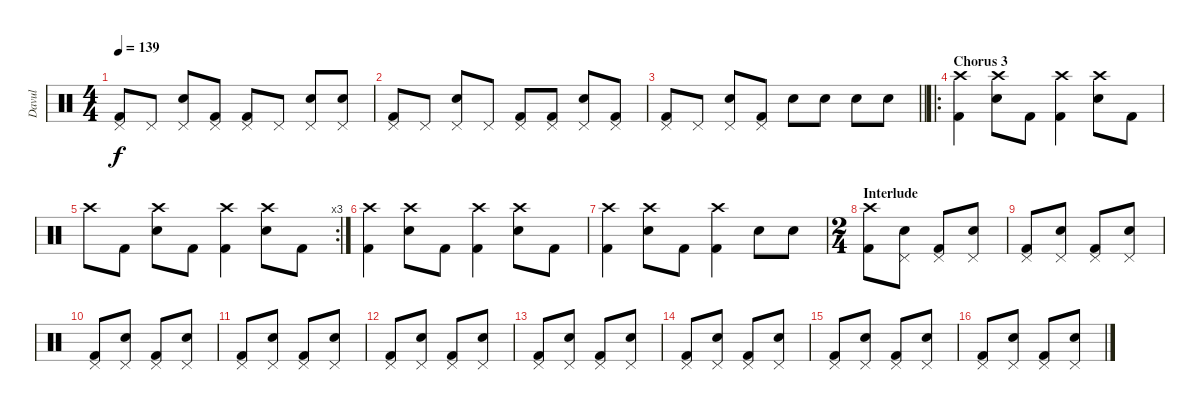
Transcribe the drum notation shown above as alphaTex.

\track ("Davul" "Davul") {instrument percussion}
\staff {score}
\articulation defaults
\ts (4 4)
\tempo 139
\clef neutral
\ks c
("Pedal Hi-Hat (hit)" "Kick (hit) 2").8{dy f} "Pedal Hi-Hat (hit)".8 ("Pedal Hi-Hat (hit)" "Snare (hit) 2").8 ("Pedal Hi-Hat (hit)" "Kick (hit) 2").8 ("Pedal Hi-Hat (hit)" "Kick (hit) 2").8 "Pedal Hi-Hat (hit)".8 ("Pedal Hi-Hat (hit)" "Snare (hit) 2").8 ("Pedal Hi-Hat (hit)" "Snare (hit) 2").8 |
("Pedal Hi-Hat (hit)" "Kick (hit) 2").8 "Pedal Hi-Hat (hit)".8 ("Pedal Hi-Hat (hit)" "Snare (hit) 2").8 "Pedal Hi-Hat (hit)".8 ("Pedal Hi-Hat (hit)" "Kick (hit) 2").8 ("Pedal Hi-Hat (hit)" "Kick (hit) 2").8 ("Pedal Hi-Hat (hit)" "Snare (hit) 2").8 ("Pedal Hi-Hat (hit)" "Kick (hit) 2").8 |
\barLineRight lightlight
("Pedal Hi-Hat (hit)" "Kick (hit) 2").8 "Pedal Hi-Hat (hit)".8 ("Pedal Hi-Hat (hit)" "Snare (hit) 2").8 ("Pedal Hi-Hat (hit)" "Kick (hit) 2").8 "Snare (hit) 2".8 "Snare (hit) 2".8 "Snare (hit) 2".8 "Snare (hit) 2".8 |
\ro
\section ("" "Chorus 3")
("Crash high (hit)" "Kick (hit) 2").4 ("Crash high (hit)" "Snare (hit) 2").8 "Kick (hit) 2".8 ("Crash high (hit)" "Kick (hit) 2").4 ("Crash high (hit)" "Snare (hit) 2").8 "Kick (hit) 2".8 |
\rc 3 "Crash high (hit)".8 "Kick (hit) 2".8
("Crash high (hit)" "Snare (hit) 2").8 "Kick (hit) 2".8 ("Crash high (hit)" "Kick (hit) 2").4 ("Crash high (hit)" "Snare (hit) 2").8 "Kick (hit) 2".8 |
("Crash high (hit)" "Kick (hit) 2").4 ("Crash high (hit)" "Snare (hit) 2").8 "Kick (hit) 2".8 ("Crash high (hit)" "Kick (hit) 2").4 ("Crash high (hit)" "Snare (hit) 2").8 "Kick (hit) 2".8 |
("Crash high (hit)" "Kick (hit) 2").4 ("Crash high (hit)" "Snare (hit) 2").8 "Kick (hit) 2".8 ("Crash high (hit)" "Kick (hit) 2").4 "Snare (hit) 2".8 "Snare (hit) 2".8 |
\ts (2 4)
\section ("" "Interlude")
("Crash high (hit)" "Kick (hit) 2").8 ("Pedal Hi-Hat (hit)" "Snare (hit) 2").8 ("Pedal Hi-Hat (hit)" "Kick (hit) 2").8 ("Pedal Hi-Hat (hit)" "Snare (hit) 2").8 |
("Pedal Hi-Hat (hit)" "Kick (hit) 2").8 ("Pedal Hi-Hat (hit)" "Snare (hit) 2").8 ("Pedal Hi-Hat (hit)" "Kick (hit) 2").8 ("Pedal Hi-Hat (hit)" "Snare (hit) 2").8 |
("Pedal Hi-Hat (hit)" "Kick (hit) 2").8 ("Pedal Hi-Hat (hit)" "Snare (hit) 2").8 ("Pedal Hi-Hat (hit)" "Kick (hit) 2").8 ("Pedal Hi-Hat (hit)" "Snare (hit) 2").8 |
("Pedal Hi-Hat (hit)" "Kick (hit) 2").8 ("Pedal Hi-Hat (hit)" "Snare (hit) 2").8 ("Pedal Hi-Hat (hit)" "Kick (hit) 2").8 ("Pedal Hi-Hat (hit)" "Snare (hit) 2").8 |
("Pedal Hi-Hat (hit)" "Kick (hit) 2").8 ("Pedal Hi-Hat (hit)" "Snare (hit) 2").8 ("Pedal Hi-Hat (hit)" "Kick (hit) 2").8 ("Pedal Hi-Hat (hit)" "Snare (hit) 2").8 |
("Pedal Hi-Hat (hit)" "Kick (hit) 2").8 ("Pedal Hi-Hat (hit)" "Snare (hit) 2").8 ("Pedal Hi-Hat (hit)" "Kick (hit) 2").8 ("Pedal Hi-Hat (hit)" "Snare (hit) 2").8 |
("Pedal Hi-Hat (hit)" "Kick (hit) 2").8 ("Pedal Hi-Hat (hit)" "Snare (hit) 2").8 ("Pedal Hi-Hat (hit)" "Kick (hit) 2").8 ("Pedal Hi-Hat (hit)" "Snare (hit) 2").8 |
("Pedal Hi-Hat (hit)" "Kick (hit) 2").8 ("Pedal Hi-Hat (hit)" "Snare (hit) 2").8 ("Pedal Hi-Hat (hit)" "Kick (hit) 2").8 ("Pedal Hi-Hat (hit)" "Snare (hit) 2").8 |
("Pedal Hi-Hat (hit)" "Kick (hit) 2").8 ("Pedal Hi-Hat (hit)" "Snare (hit) 2").8 ("Pedal Hi-Hat (hit)" "Kick (hit) 2").8 ("Pedal Hi-Hat (hit)" "Snare (hit) 2").8
